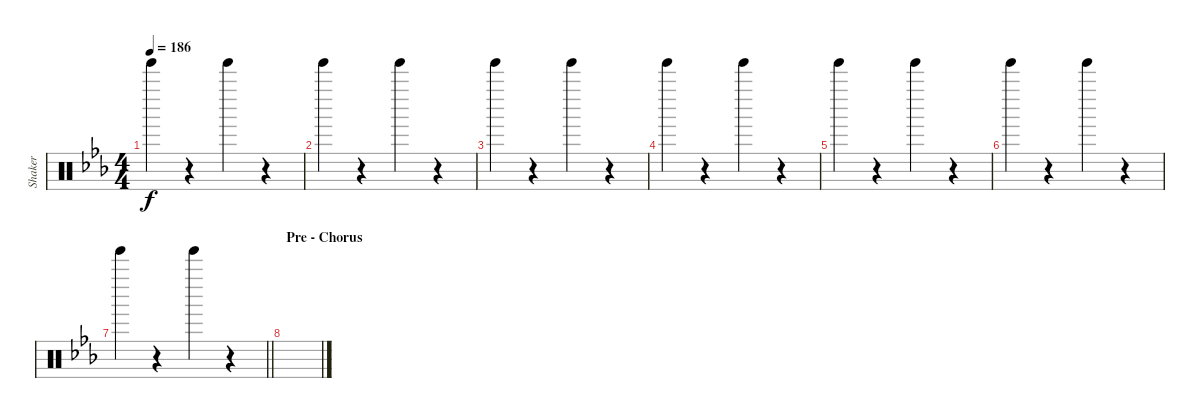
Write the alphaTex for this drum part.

\track ("Shaker" "Shaker") {instrument percussion}
\staff {score}
\articulation defaults
\ts (4 4)
\tempo 186
\clef neutral
\ks eb "Tinkle Bell (hit)".4{dy f}
r.4 "Tinkle Bell (hit)".4 r.4 |
"Tinkle Bell (hit)".4 r.4 "Tinkle Bell (hit)".4 r.4 |
"Tinkle Bell (hit)".4 r.4 "Tinkle Bell (hit)".4 r.4 |
"Tinkle Bell (hit)".4 r.4 "Tinkle Bell (hit)".4 r.4 |
"Tinkle Bell (hit)".4 r.4 "Tinkle Bell (hit)".4 r.4 |
"Tinkle Bell (hit)".4 r.4 "Tinkle Bell (hit)".4 r.4 |
\barLineRight lightlight "Tinkle Bell (hit)".4
r.4 "Tinkle Bell (hit)".4 r.4 |
\section ("" "Pre - Chorus")
